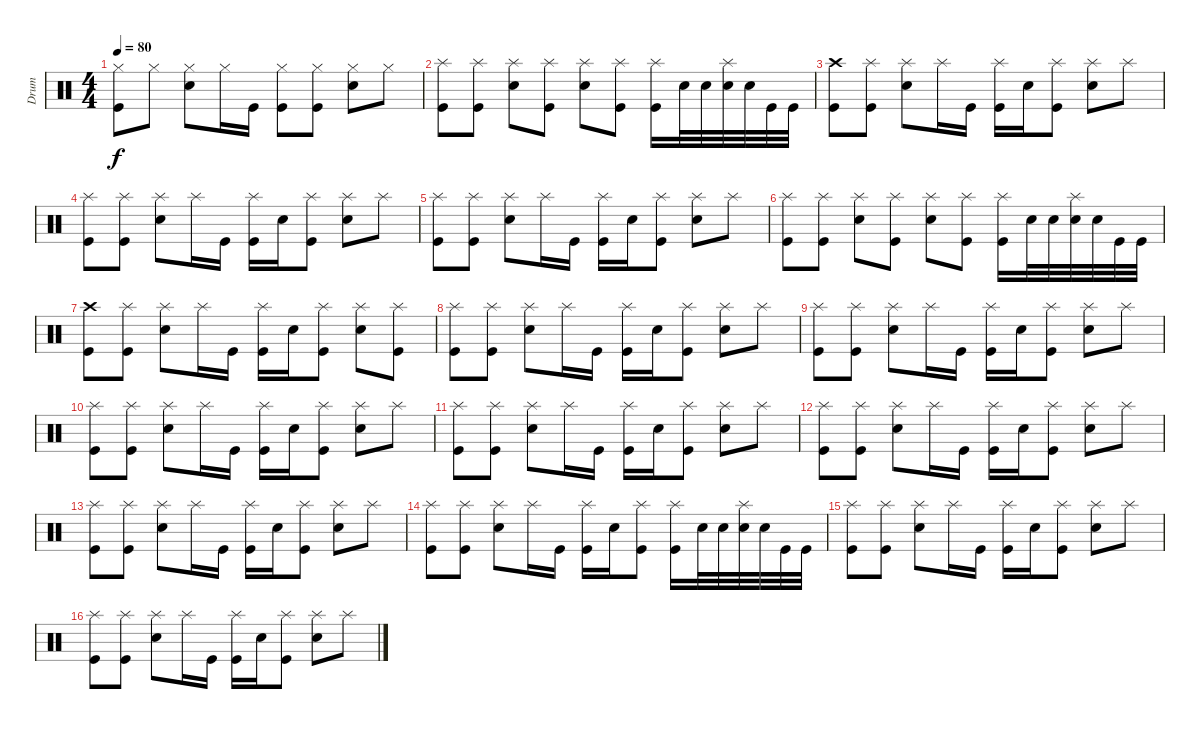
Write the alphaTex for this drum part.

\track ("Drum" "Drum") {instrument percussion}
\staff {score}
\articulation defaults
\ts (4 4)
\tempo 80
\clef neutral
\ks c
("Hi-Hat (closed)" "Kick (hit)").8{dy f} "Hi-Hat (closed)".8 ("Hi-Hat (closed)" "Electric Snare (hit)").8 "Hi-Hat (closed)".16 "Kick (hit)".16 ("Hi-Hat (closed)" "Kick (hit)").8 ("Hi-Hat (closed)" "Kick (hit)").8 ("Hi-Hat (closed)" "Electric Snare (hit)").8 "Hi-Hat (closed)".8 |
("Splash (hit)" "Kick (hit)").8 ("Splash (hit)" "Kick (hit)").8 ("Splash (hit)" "Electric Snare (hit)").8 ("Splash (hit)" "Kick (hit)").8 ("Splash (hit)" "Electric Snare (hit)").8 ("Splash (hit)" "Kick (hit)").8 ("Splash (hit)" "Kick (hit)").16 "Electric Snare (hit)".32 "Electric Snare (hit)".32 ("Splash (hit)" "Electric Snare (hit)").32 "Electric Snare (hit)".32 "Kick (hit)".32 "Kick (hit)".32 |
("Crash high (hit)" "Kick (hit)").8 ("Splash (hit)" "Kick (hit)").8 ("Splash (hit)" "Electric Snare (hit)").8 "Splash (hit)".16 "Kick (hit)".16 ("Splash (hit)" "Kick (hit)").16 "Electric Snare (hit)".16 ("Splash (hit)" "Kick (hit)").8 ("Splash (hit)" "Electric Snare (hit)").8 "Splash (hit)".8 |
("Splash (hit)" "Kick (hit)").8 ("Splash (hit)" "Kick (hit)").8 ("Splash (hit)" "Electric Snare (hit)").8 "Splash (hit)".16 "Kick (hit)".16 ("Splash (hit)" "Kick (hit)").16 "Electric Snare (hit)".16 ("Splash (hit)" "Kick (hit)").8 ("Splash (hit)" "Electric Snare (hit)").8 "Splash (hit)".8 |
("Splash (hit)" "Kick (hit)").8 ("Splash (hit)" "Kick (hit)").8 ("Splash (hit)" "Electric Snare (hit)").8 "Splash (hit)".16 "Kick (hit)".16 ("Splash (hit)" "Kick (hit)").16 "Electric Snare (hit)".16 ("Splash (hit)" "Kick (hit)").8 ("Splash (hit)" "Electric Snare (hit)").8 "Splash (hit)".8 |
("Splash (hit)" "Kick (hit)").8 ("Splash (hit)" "Kick (hit)").8 ("Splash (hit)" "Electric Snare (hit)").8 ("Splash (hit)" "Kick (hit)").8 ("Splash (hit)" "Electric Snare (hit)").8 ("Splash (hit)" "Kick (hit)").8 ("Splash (hit)" "Kick (hit)").16 "Electric Snare (hit)".32 "Electric Snare (hit)".32 ("Splash (hit)" "Electric Snare (hit)").32 "Electric Snare (hit)".32 "Kick (hit)".32 "Kick (hit)".32 |
("Crash high (hit)" "Kick (hit)").8 ("Splash (hit)" "Kick (hit)").8 ("Splash (hit)" "Electric Snare (hit)").8 "Splash (hit)".16 "Kick (hit)".16 ("Splash (hit)" "Kick (hit)").16 "Electric Snare (hit)".16 ("Splash (hit)" "Kick (hit)").8 ("Splash (hit)" "Electric Snare (hit)").8 ("Splash (hit)" "Kick (hit)").8 |
("Splash (hit)" "Kick (hit)").8 ("Splash (hit)" "Kick (hit)").8 ("Splash (hit)" "Electric Snare (hit)").8 "Splash (hit)".16 "Kick (hit)".16 ("Splash (hit)" "Kick (hit)").16 "Electric Snare (hit)".16 ("Splash (hit)" "Kick (hit)").8 ("Splash (hit)" "Electric Snare (hit)").8 "Splash (hit)".8 |
("Splash (hit)" "Kick (hit)").8 ("Splash (hit)" "Kick (hit)").8 ("Splash (hit)" "Electric Snare (hit)").8 "Splash (hit)".16 "Kick (hit)".16 ("Splash (hit)" "Kick (hit)").16 "Electric Snare (hit)".16 ("Splash (hit)" "Kick (hit)").8 ("Splash (hit)" "Electric Snare (hit)").8 "Splash (hit)".8 |
("Splash (hit)" "Kick (hit)").8 ("Splash (hit)" "Kick (hit)").8 ("Splash (hit)" "Electric Snare (hit)").8 "Splash (hit)".16 "Kick (hit)".16 ("Splash (hit)" "Kick (hit)").16 "Electric Snare (hit)".16 ("Splash (hit)" "Kick (hit)").8 ("Splash (hit)" "Electric Snare (hit)").8 "Splash (hit)".8 |
("Splash (hit)" "Kick (hit)").8 ("Splash (hit)" "Kick (hit)").8 ("Splash (hit)" "Electric Snare (hit)").8 "Splash (hit)".16 "Kick (hit)".16 ("Splash (hit)" "Kick (hit)").16 "Electric Snare (hit)".16 ("Splash (hit)" "Kick (hit)").8 ("Splash (hit)" "Electric Snare (hit)").8 "Splash (hit)".8 |
("Splash (hit)" "Kick (hit)").8 ("Splash (hit)" "Kick (hit)").8 ("Splash (hit)" "Electric Snare (hit)").8 "Splash (hit)".16 "Kick (hit)".16 ("Splash (hit)" "Kick (hit)").16 "Electric Snare (hit)".16 ("Splash (hit)" "Kick (hit)").8 ("Splash (hit)" "Electric Snare (hit)").8 "Splash (hit)".8 |
("Splash (hit)" "Kick (hit)").8 ("Splash (hit)" "Kick (hit)").8 ("Splash (hit)" "Electric Snare (hit)").8 "Splash (hit)".16 "Kick (hit)".16 ("Splash (hit)" "Kick (hit)").16 "Electric Snare (hit)".16 ("Splash (hit)" "Kick (hit)").8 ("Splash (hit)" "Electric Snare (hit)").8 "Splash (hit)".8 |
("Splash (hit)" "Kick (hit)").8 ("Splash (hit)" "Kick (hit)").8 ("Splash (hit)" "Electric Snare (hit)").8 "Splash (hit)".16 "Kick (hit)".16 ("Splash (hit)" "Kick (hit)").16 "Electric Snare (hit)".16 ("Splash (hit)" "Kick (hit)").8 ("Splash (hit)" "Kick (hit)").16 "Electric Snare (hit)".32 "Electric Snare (hit)".32 ("Splash (hit)" "Snare (hit) 2").32 "Snare (hit) 2".32 "Kick (hit)".32 "Kick (hit)".32 |
("Splash (hit)" "Kick (hit)").8 ("Splash (hit)" "Kick (hit)").8 ("Splash (hit)" "Electric Snare (hit)").8 "Splash (hit)".16 "Kick (hit)".16 ("Splash (hit)" "Kick (hit)").16 "Electric Snare (hit)".16 ("Splash (hit)" "Kick (hit)").8 ("Splash (hit)" "Electric Snare (hit)").8 "Splash (hit)".8 |
("Splash (hit)" "Kick (hit)").8 ("Splash (hit)" "Kick (hit)").8 ("Splash (hit)" "Electric Snare (hit)").8 "Splash (hit)".16 "Kick (hit)".16 ("Splash (hit)" "Kick (hit)").16 "Electric Snare (hit)".16 ("Splash (hit)" "Kick (hit)").8 ("Splash (hit)" "Electric Snare (hit)").8 "Splash (hit)".8
